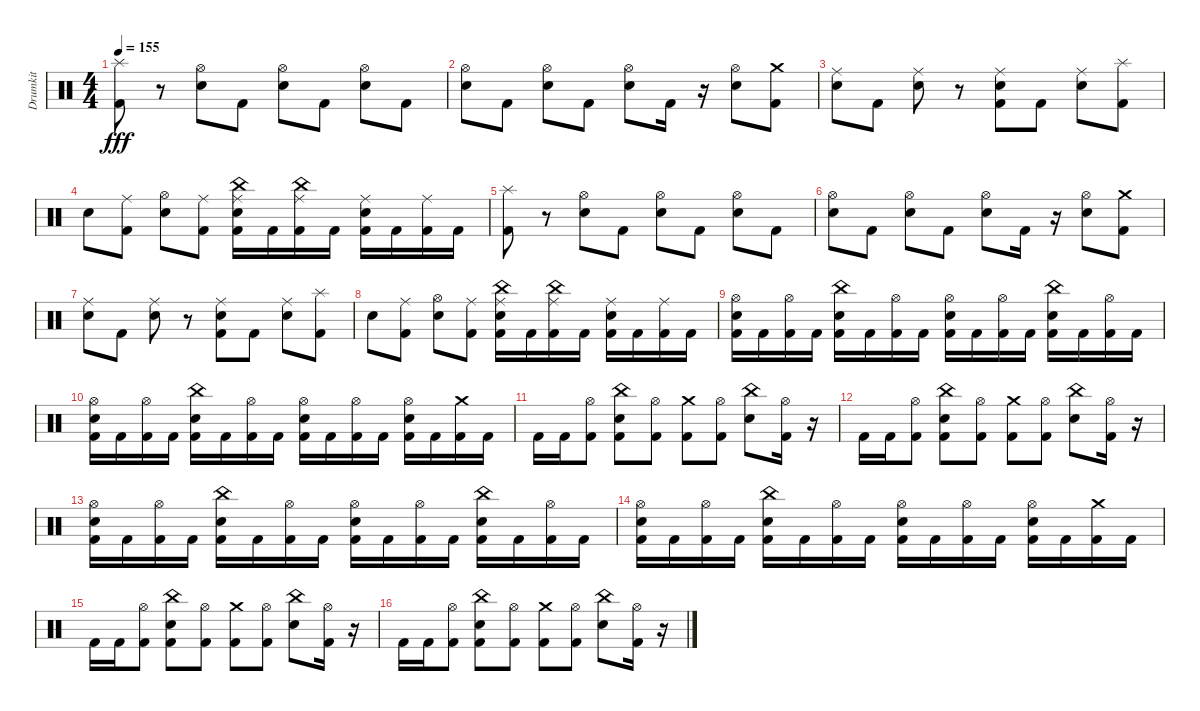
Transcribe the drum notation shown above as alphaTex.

\track ("Drumkit" "Drumkit") {instrument percussion}
\staff {score}
\articulation defaults
\ts (4 4)
\tempo 155
\clef neutral
\ks c
("Kick (hit) 2" "Splash (hit)").8{dy fff} r.8 ("Snare (hit) 2" "Hi-Hat (open)").8 "Kick (hit) 2".8 ("Snare (hit) 2" "Hi-Hat (open)").8 "Kick (hit) 2".8 ("Snare (hit) 2" "Hi-Hat (open)").8 "Kick (hit) 2".8 |
("Snare (hit) 2" "Hi-Hat (open)").8 "Kick (hit) 2".8 ("Snare (hit) 2" "Hi-Hat (open)").8 "Kick (hit) 2".8 ("Snare (hit) 2" "Hi-Hat (open)").8 "Kick (hit) 2".16 r.16 ("Snare (hit) 2" "Hi-Hat (open)").8 ("Kick (hit) 2" "Crash medium (hit)").8 |
("Snare (hit) 2" "Ride (middle)").8 "Kick (hit) 2".8 ("Snare (hit) 2" "Ride (middle)").8 r.8 ("Kick (hit) 2" "Snare (hit) 2" "Ride (middle)").8 "Kick (hit) 2".8 ("Snare (hit) 2" "Ride (middle)").8 ("Kick (hit) 2" "Splash (hit)").8 |
"Snare (hit) 2".8 ("Kick (hit) 2" "Ride (middle)").8 ("Snare (hit) 2" "Hi-Hat (open)").8 ("Kick (hit) 2" "Ride (middle)").8 ("Kick (hit) 2" "Snare (hit) 2" "Ride (middle)" "China (hit)").16 "Kick (hit) 2".16 ("Kick (hit) 2" "Ride (middle)" "China (hit)").16 "Kick (hit) 2".16 ("Kick (hit) 2" "Snare (hit) 2" "Ride (middle)").16 "Kick (hit) 2".16 ("Kick (hit) 2" "Ride (middle)").16 "Kick (hit) 2".16 |
("Kick (hit) 2" "Splash (hit)").8 r.8 ("Snare (hit) 2" "Hi-Hat (open)").8 "Kick (hit) 2".8 ("Snare (hit) 2" "Hi-Hat (open)").8 "Kick (hit) 2".8 ("Snare (hit) 2" "Hi-Hat (open)").8 "Kick (hit) 2".8 |
("Snare (hit) 2" "Hi-Hat (open)").8 "Kick (hit) 2".8 ("Snare (hit) 2" "Hi-Hat (open)").8 "Kick (hit) 2".8 ("Snare (hit) 2" "Hi-Hat (open)").8 "Kick (hit) 2".16 r.16 ("Snare (hit) 2" "Hi-Hat (open)").8 ("Kick (hit) 2" "Crash medium (hit)").8 |
("Snare (hit) 2" "Ride (middle)").8 "Kick (hit) 2".8 ("Snare (hit) 2" "Ride (middle)").8 r.8 ("Kick (hit) 2" "Snare (hit) 2" "Ride (middle)").8 "Kick (hit) 2".8 ("Snare (hit) 2" "Ride (middle)").8 ("Kick (hit) 2" "Splash (hit)").8 |
"Snare (hit) 2".8 ("Kick (hit) 2" "Ride (middle)").8 ("Snare (hit) 2" "Hi-Hat (open)").8 ("Kick (hit) 2" "Ride (middle)").8 ("Kick (hit) 2" "Snare (hit) 2" "Ride (middle)" "China (hit)").16 "Kick (hit) 2".16 ("Kick (hit) 2" "Ride (middle)" "China (hit)").16 "Kick (hit) 2".16 ("Kick (hit) 2" "Snare (hit) 2" "Ride (middle)").16 "Kick (hit) 2".16 ("Kick (hit) 2" "Ride (middle)").16 "Kick (hit) 2".16 |
("Kick (hit) 2" "Snare (hit) 2" "Hi-Hat (open)").16 "Kick (hit) 2".16 ("Kick (hit) 2" "Hi-Hat (open)").16 "Kick (hit) 2".16 ("Kick (hit) 2" "Snare (hit) 2" "China (hit)").16 "Kick (hit) 2".16 ("Kick (hit) 2" "Hi-Hat (open)").16 "Kick (hit) 2".16 ("Kick (hit) 2" "Snare (hit) 2" "Hi-Hat (open)").16 "Kick (hit) 2".16 ("Kick (hit) 2" "Hi-Hat (open)").16 "Kick (hit) 2".16 ("Kick (hit) 2" "Snare (hit) 2" "China (hit)").16 "Kick (hit) 2".16 ("Kick (hit) 2" "Hi-Hat (open)").16 "Kick (hit) 2".16 |
("Kick (hit) 2" "Snare (hit) 2" "Hi-Hat (open)").16 "Kick (hit) 2".16 ("Kick (hit) 2" "Hi-Hat (open)").16 "Kick (hit) 2".16 ("Kick (hit) 2" "Snare (hit) 2" "China (hit)").16 "Kick (hit) 2".16 ("Kick (hit) 2" "Hi-Hat (open)").16 "Kick (hit) 2".16 ("Kick (hit) 2" "Snare (hit) 2" "Hi-Hat (open)").16 "Kick (hit) 2".16 ("Kick (hit) 2" "Hi-Hat (open)").16 "Kick (hit) 2".16 ("Kick (hit) 2" "Snare (hit) 2" "Hi-Hat (open)").16 "Kick (hit) 2".16 ("Kick (hit) 2" "Crash medium (hit)").16 "Kick (hit) 2".16 |
"Kick (hit) 2".16 "Kick (hit) 2".16 ("Kick (hit) 2" "Hi-Hat (open)").8 ("Kick (hit) 2" "Snare (hit) 2" "China (hit)").8 ("Kick (hit) 2" "Hi-Hat (open)").8 ("Kick (hit) 2" "Crash medium (hit)").8 ("Kick (hit) 2" "Hi-Hat (open)").8 ("Snare (hit) 2" "China (hit)").8 ("Kick (hit) 2" "Hi-Hat (open)").16 r.16 |
"Kick (hit) 2".16 "Kick (hit) 2".16 ("Kick (hit) 2" "Hi-Hat (open)").8 ("Kick (hit) 2" "Snare (hit) 2" "China (hit)").8 ("Kick (hit) 2" "Hi-Hat (open)").8 ("Kick (hit) 2" "Crash medium (hit)").8 ("Kick (hit) 2" "Hi-Hat (open)").8 ("Snare (hit) 2" "China (hit)").8 ("Kick (hit) 2" "Hi-Hat (open)").16 r.16 |
("Kick (hit) 2" "Snare (hit) 2" "Hi-Hat (open)").16 "Kick (hit) 2".16 ("Kick (hit) 2" "Hi-Hat (open)").16 "Kick (hit) 2".16 ("Kick (hit) 2" "Snare (hit) 2" "China (hit)").16 "Kick (hit) 2".16 ("Kick (hit) 2" "Hi-Hat (open)").16 "Kick (hit) 2".16 ("Kick (hit) 2" "Snare (hit) 2" "Hi-Hat (open)").16 "Kick (hit) 2".16 ("Kick (hit) 2" "Hi-Hat (open)").16 "Kick (hit) 2".16 ("Kick (hit) 2" "Snare (hit) 2" "China (hit)").16 "Kick (hit) 2".16 ("Kick (hit) 2" "Hi-Hat (open)").16 "Kick (hit) 2".16 |
("Kick (hit) 2" "Snare (hit) 2" "Hi-Hat (open)").16 "Kick (hit) 2".16 ("Kick (hit) 2" "Hi-Hat (open)").16 "Kick (hit) 2".16 ("Kick (hit) 2" "Snare (hit) 2" "China (hit)").16 "Kick (hit) 2".16 ("Kick (hit) 2" "Hi-Hat (open)").16 "Kick (hit) 2".16 ("Kick (hit) 2" "Snare (hit) 2" "Hi-Hat (open)").16 "Kick (hit) 2".16 ("Kick (hit) 2" "Hi-Hat (open)").16 "Kick (hit) 2".16 ("Kick (hit) 2" "Snare (hit) 2" "Hi-Hat (open)").16 "Kick (hit) 2".16 ("Kick (hit) 2" "Crash medium (hit)").16 "Kick (hit) 2".16 |
"Kick (hit) 2".16 "Kick (hit) 2".16 ("Kick (hit) 2" "Hi-Hat (open)").8 ("Kick (hit) 2" "Snare (hit) 2" "China (hit)").8 ("Kick (hit) 2" "Hi-Hat (open)").8 ("Kick (hit) 2" "Crash medium (hit)").8 ("Kick (hit) 2" "Hi-Hat (open)").8 ("Snare (hit) 2" "China (hit)").8 ("Kick (hit) 2" "Hi-Hat (open)").16 r.16 |
"Kick (hit) 2".16 "Kick (hit) 2".16 ("Kick (hit) 2" "Hi-Hat (open)").8 ("Kick (hit) 2" "Snare (hit) 2" "China (hit)").8 ("Kick (hit) 2" "Hi-Hat (open)").8 ("Kick (hit) 2" "Crash medium (hit)").8 ("Kick (hit) 2" "Hi-Hat (open)").8 ("Snare (hit) 2" "China (hit)").8 ("Kick (hit) 2" "Hi-Hat (open)").16 r.16
